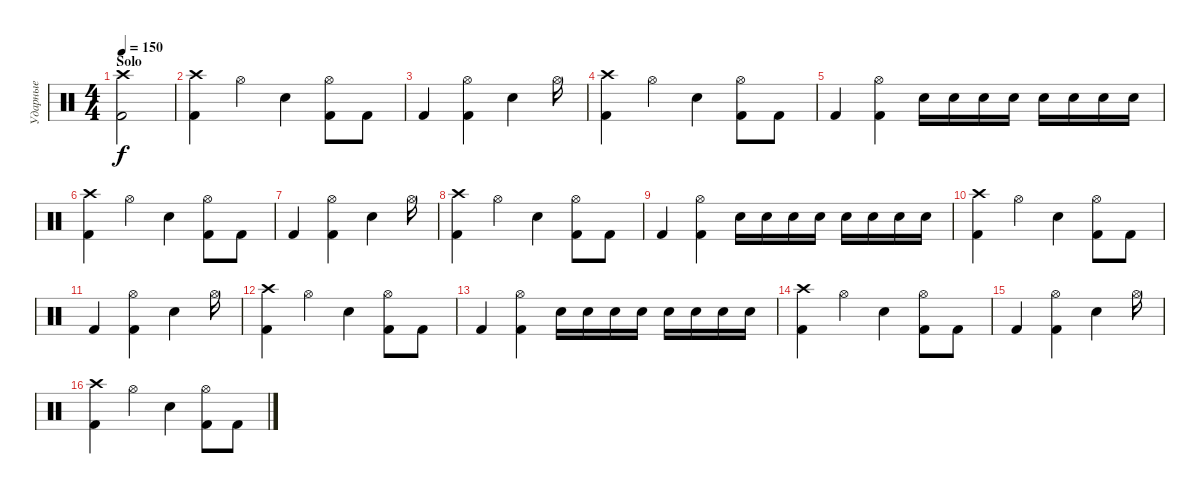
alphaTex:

\track ("Ударные" "Ударные") {instrument percussion}
\staff {score}
\articulation defaults
\ts (4 4)
\section ("" "Solo")
\tempo 150
\clef neutral
\ks c
("Crash high (hit)" "Kick (hit) 2").2{dy f} |
("Crash high (hit)" "Kick (hit) 2").4 "Hi-Hat (open)".4 "Electric Snare (hit)".4 ("Hi-Hat (open)" "Kick (hit) 2").8 "Kick (hit) 2".8 |
"Kick (hit) 2".4 ("Hi-Hat (open)" "Kick (hit) 2").4 "Electric Snare (hit)".4 "Hi-Hat (open)".16 |
("Crash high (hit)" "Kick (hit) 2").4 "Hi-Hat (open)".4 "Electric Snare (hit)".4 ("Hi-Hat (open)" "Kick (hit) 2").8 "Kick (hit) 2".8 |
"Kick (hit) 2".4 ("Hi-Hat (open)" "Kick (hit) 2").4 "Electric Snare (hit)".16 "Electric Snare (hit)".16 "Electric Snare (hit)".16 "Electric Snare (hit)".16 "Electric Snare (hit)".16 "Electric Snare (hit)".16 "Electric Snare (hit)".16 "Electric Snare (hit)".16 |
("Crash high (hit)" "Kick (hit) 2").4 "Hi-Hat (open)".4 "Electric Snare (hit)".4 ("Hi-Hat (open)" "Kick (hit) 2").8 "Kick (hit) 2".8 |
"Kick (hit) 2".4 ("Hi-Hat (open)" "Kick (hit) 2").4 "Electric Snare (hit)".4 "Hi-Hat (open)".16 |
("Crash high (hit)" "Kick (hit) 2").4 "Hi-Hat (open)".4 "Electric Snare (hit)".4 ("Hi-Hat (open)" "Kick (hit) 2").8 "Kick (hit) 2".8 |
"Kick (hit) 2".4 ("Hi-Hat (open)" "Kick (hit) 2").4 "Electric Snare (hit)".16 "Electric Snare (hit)".16 "Electric Snare (hit)".16 "Electric Snare (hit)".16 "Electric Snare (hit)".16 "Electric Snare (hit)".16 "Electric Snare (hit)".16 "Electric Snare (hit)".16 |
("Crash high (hit)" "Kick (hit) 2").4 "Hi-Hat (open)".4 "Electric Snare (hit)".4 ("Hi-Hat (open)" "Kick (hit) 2").8 "Kick (hit) 2".8 |
"Kick (hit) 2".4 ("Hi-Hat (open)" "Kick (hit) 2").4 "Electric Snare (hit)".4 "Hi-Hat (open)".16 |
("Crash high (hit)" "Kick (hit) 2").4 "Hi-Hat (open)".4 "Electric Snare (hit)".4 ("Hi-Hat (open)" "Kick (hit) 2").8 "Kick (hit) 2".8 |
"Kick (hit) 2".4 ("Hi-Hat (open)" "Kick (hit) 2").4 "Electric Snare (hit)".16 "Electric Snare (hit)".16 "Electric Snare (hit)".16 "Electric Snare (hit)".16 "Electric Snare (hit)".16 "Electric Snare (hit)".16 "Electric Snare (hit)".16 "Electric Snare (hit)".16 |
("Crash high (hit)" "Kick (hit) 2").4 "Hi-Hat (open)".4 "Electric Snare (hit)".4 ("Hi-Hat (open)" "Kick (hit) 2").8 "Kick (hit) 2".8 |
"Kick (hit) 2".4 ("Hi-Hat (open)" "Kick (hit) 2").4 "Electric Snare (hit)".4 "Hi-Hat (open)".16 |
("Crash high (hit)" "Kick (hit) 2").4 "Hi-Hat (open)".4 "Electric Snare (hit)".4 ("Hi-Hat (open)" "Kick (hit) 2").8 "Kick (hit) 2".8
